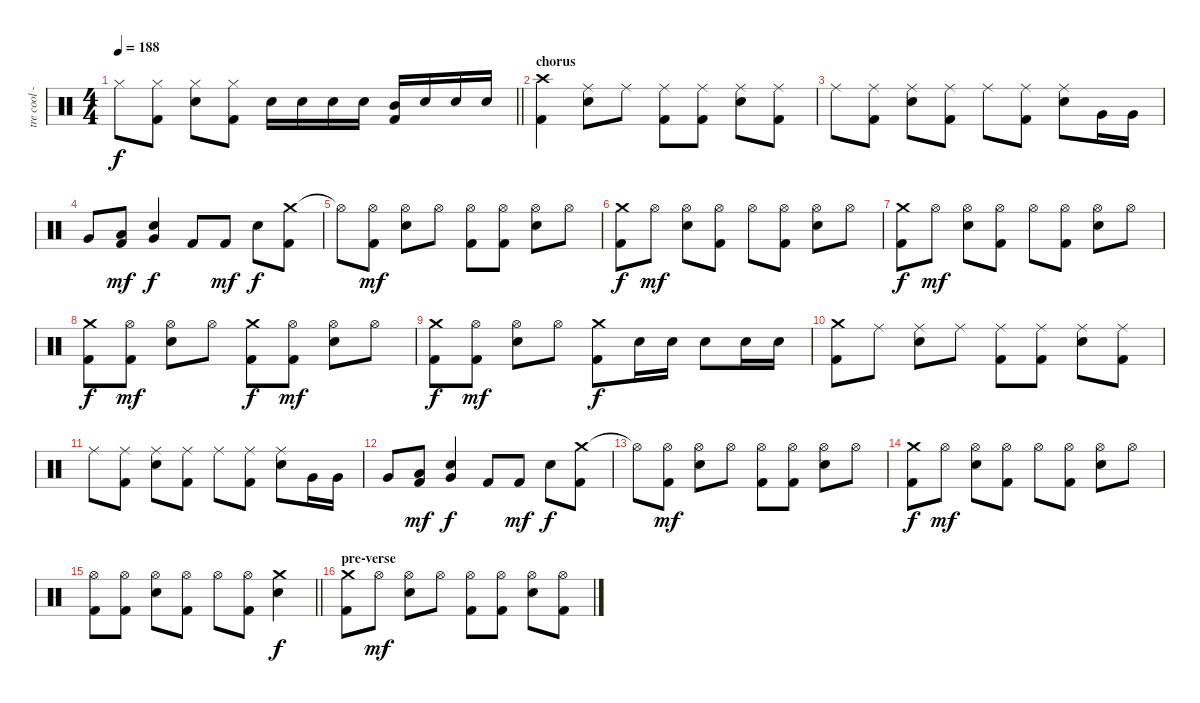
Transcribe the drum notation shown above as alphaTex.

\track ("tre cool - drums" "tre cool -") {instrument percussion}
\staff {score}
\articulation defaults
\ts (4 4)
\tempo 188
\clef neutral
\barLineRight lightlight
\ks c "Hi-Hat (closed)"{t}.8{dy f}
("Hi-Hat (closed)" "Kick (hit) 2").8 ("Hi-Hat (closed)" "Electric Snare (hit)").8 ("Hi-Hat (closed)" "Kick (hit) 2").8 "Electric Snare (hit)".16 "Electric Snare (hit)".16 "Electric Snare (hit)".16 "Electric Snare (hit)".16 ("Mid Tom (hit)" "Kick (hit) 2").16 "Electric Snare (hit)".16 "Electric Snare (hit)".16 "Electric Snare (hit)".16 |
\section ("" "chorus")
("Crash high (hit)" "Kick (hit) 2").4 ("Ride (middle)" "Electric Snare (hit)").8 "Ride (middle)".8 ("Ride (middle)" "Kick (hit) 2").8 ("Ride (middle)" "Kick (hit) 2").8 ("Ride (middle)" "Electric Snare (hit)").8 ("Ride (middle)" "Kick (hit) 2").8 |
"Ride (middle)".8 ("Ride (middle)" "Kick (hit) 2").8 ("Ride (middle)" "Electric Snare (hit)").8 ("Ride (middle)" "Kick (hit) 2").8 "Ride (middle)".8 ("Ride (middle)" "Kick (hit) 2").8 ("Ride (middle)" "Electric Snare (hit)").8 "Very Low Tom (hit)".16 "Very Low Tom (hit)".16 |
"Very Low Tom (hit)".8 ("Low Tom (hit)" "Kick (hit) 2").8{dy mf} ("Electric Snare (hit)" "Very Low Tom (hit)").4{dy f} "Kick (hit) 2".8 "Kick (hit) 2".8{dy mf} "Electric Snare (hit)".8{dy f} ("Crash medium (hit)" "Kick (hit) 2").8 |
"Hi-Hat (open)"{t}.8 ("Hi-Hat (open)" "Kick (hit) 2").8{dy mf} ("Hi-Hat (open)" "Electric Snare (hit)").8 "Hi-Hat (open)".8 ("Hi-Hat (open)" "Kick (hit) 2").8 ("Hi-Hat (open)" "Kick (hit) 2").8 ("Hi-Hat (open)" "Electric Snare (hit)").8 "Hi-Hat (open)".8 |
("Crash medium (hit)" "Kick (hit) 2").8{dy f} "Hi-Hat (open)".8{dy mf} ("Hi-Hat (open)" "Electric Snare (hit)").8 ("Hi-Hat (open)" "Kick (hit) 2").8 "Hi-Hat (open)".8 ("Hi-Hat (open)" "Kick (hit) 2").8 ("Hi-Hat (open)" "Electric Snare (hit)").8 "Hi-Hat (open)".8 |
("Crash medium (hit)" "Kick (hit) 2").8{dy f} "Hi-Hat (open)".8{dy mf} ("Hi-Hat (open)" "Electric Snare (hit)").8 ("Hi-Hat (open)" "Kick (hit) 2").8 "Hi-Hat (open)".8 ("Hi-Hat (open)" "Kick (hit) 2").8 ("Hi-Hat (open)" "Electric Snare (hit)").8 "Hi-Hat (open)".8 |
("Crash medium (hit)" "Kick (hit) 2").8{dy f} ("Hi-Hat (open)" "Kick (hit) 2").8{dy mf} ("Hi-Hat (open)" "Electric Snare (hit)").8 "Hi-Hat (open)".8 ("Crash medium (hit)" "Kick (hit) 2").8{dy f} ("Hi-Hat (open)" "Kick (hit) 2").8{dy mf} ("Hi-Hat (open)" "Electric Snare (hit)").8 "Hi-Hat (open)".8 |
("Crash medium (hit)" "Kick (hit) 2").8{dy f} ("Hi-Hat (open)" "Kick (hit) 2").8{dy mf} ("Hi-Hat (open)" "Electric Snare (hit)").8 "Hi-Hat (open)".8 ("Crash medium (hit)" "Kick (hit) 2").8{dy f} "Electric Snare (hit)".16 "Electric Snare (hit)".16 "Electric Snare (hit)".8 "Electric Snare (hit)".16 "Electric Snare (hit)".16 |
("Crash medium (hit)" "Kick (hit) 2").8 "Ride (middle)".8 ("Ride (middle)" "Electric Snare (hit)").8 "Ride (middle)".8 ("Ride (middle)" "Kick (hit) 2").8 ("Ride (middle)" "Kick (hit) 2").8 ("Ride (middle)" "Electric Snare (hit)").8 ("Ride (middle)" "Kick (hit) 2").8 |
"Ride (middle)".8 ("Ride (middle)" "Kick (hit) 2").8 ("Ride (middle)" "Electric Snare (hit)").8 ("Ride (middle)" "Kick (hit) 2").8 "Ride (middle)".8 ("Ride (middle)" "Kick (hit) 2").8 ("Ride (middle)" "Electric Snare (hit)").8 "Very Low Tom (hit)".16 "Very Low Tom (hit)".16 |
"Very Low Tom (hit)".8 ("Low Tom (hit)" "Kick (hit) 2").8{dy mf} ("Electric Snare (hit)" "Very Low Tom (hit)").4{dy f} "Kick (hit) 2".8 "Kick (hit) 2".8{dy mf} "Electric Snare (hit)".8{dy f} ("Crash medium (hit)" "Kick (hit) 2").8 |
"Hi-Hat (open)"{t}.8 ("Hi-Hat (open)" "Kick (hit) 2").8{dy mf} ("Hi-Hat (open)" "Electric Snare (hit)").8 "Hi-Hat (open)".8 ("Hi-Hat (open)" "Kick (hit) 2").8 ("Hi-Hat (open)" "Kick (hit) 2").8 ("Hi-Hat (open)" "Electric Snare (hit)").8 "Hi-Hat (open)".8 |
("Crash medium (hit)" "Kick (hit) 2").8{dy f} "Hi-Hat (open)".8{dy mf} ("Hi-Hat (open)" "Electric Snare (hit)").8 ("Hi-Hat (open)" "Kick (hit) 2").8 "Hi-Hat (open)".8 ("Hi-Hat (open)" "Kick (hit) 2").8 ("Hi-Hat (open)" "Electric Snare (hit)").8 "Hi-Hat (open)".8 |
\barLineRight lightlight
("Hi-Hat (open)" "Kick (hit) 2").8 ("Hi-Hat (open)" "Kick (hit) 2").8 ("Hi-Hat (open)" "Electric Snare (hit)").8 ("Hi-Hat (open)" "Kick (hit) 2").8 "Hi-Hat (open)".8 ("Hi-Hat (open)" "Kick (hit) 2").8 ("Crash medium (hit)" "Electric Snare (hit)").4{dy f} |
\section ("" "pre-verse")
("Crash medium (hit)" "Kick (hit) 2").8 "Hi-Hat (open)".8{dy mf} ("Hi-Hat (open)" "Electric Snare (hit)").8 "Hi-Hat (open)".8 ("Hi-Hat (open)" "Kick (hit) 2").8 ("Hi-Hat (open)" "Kick (hit) 2").8 ("Hi-Hat (open)" "Electric Snare (hit)").8 ("Hi-Hat (open)" "Kick (hit) 2").8
